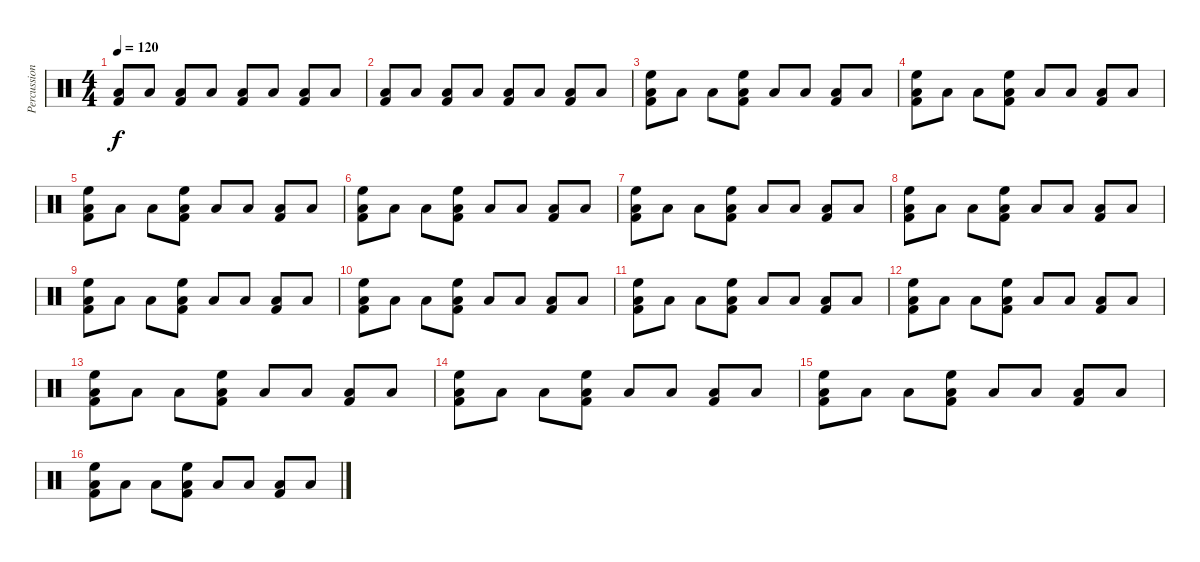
\track ("Percussion" "Percussion") {instrument percussion}
\staff {score}
\articulation defaults
\ts (4 4)
\tempo 120
\clef neutral
\ks c
("Low Floor Tom (hit)" "Kick (hit) 2").8{dy f} "Low Floor Tom (hit)".8 ("Low Floor Tom (hit)" "Kick (hit) 2").8 "Low Floor Tom (hit)".8 ("Low Floor Tom (hit)" "Kick (hit) 2").8 "Low Floor Tom (hit)".8 ("Low Floor Tom (hit)" "Kick (hit) 2").8 "Low Floor Tom (hit)".8 |
("Low Floor Tom (hit)" "Kick (hit) 2").8 "Low Floor Tom (hit)".8 ("Low Floor Tom (hit)" "Kick (hit) 2").8 "Low Floor Tom (hit)".8 ("Low Floor Tom (hit)" "Kick (hit) 2").8 "Low Floor Tom (hit)".8 ("Low Floor Tom (hit)" "Kick (hit) 2").8 "Low Floor Tom (hit)".8 |
("Low Floor Tom (hit)" "High Floor Tom (hit)" "Kick (hit) 2").8 "Low Floor Tom (hit)".8 "Low Floor Tom (hit)".8 ("Low Floor Tom (hit)" "High Floor Tom (hit)" "Kick (hit) 2").8 "Low Floor Tom (hit)".8 "Low Floor Tom (hit)".8 ("Low Floor Tom (hit)" "Kick (hit) 2").8 "Low Floor Tom (hit)".8 |
("Low Floor Tom (hit)" "High Floor Tom (hit)" "Kick (hit) 2").8 "Low Floor Tom (hit)".8 "Low Floor Tom (hit)".8 ("Low Floor Tom (hit)" "High Floor Tom (hit)" "Kick (hit) 2").8 "Low Floor Tom (hit)".8 "Low Floor Tom (hit)".8 ("Low Floor Tom (hit)" "Kick (hit) 2").8 "Low Floor Tom (hit)".8 |
("Low Floor Tom (hit)" "High Floor Tom (hit)" "Kick (hit) 2").8 "Low Floor Tom (hit)".8 "Low Floor Tom (hit)".8 ("Low Floor Tom (hit)" "High Floor Tom (hit)" "Kick (hit) 2").8 "Low Floor Tom (hit)".8 "Low Floor Tom (hit)".8 ("Low Floor Tom (hit)" "Kick (hit) 2").8 "Low Floor Tom (hit)".8 |
("Low Floor Tom (hit)" "High Floor Tom (hit)" "Kick (hit) 2").8 "Low Floor Tom (hit)".8 "Low Floor Tom (hit)".8 ("Low Floor Tom (hit)" "High Floor Tom (hit)" "Kick (hit) 2").8 "Low Floor Tom (hit)".8 "Low Floor Tom (hit)".8 ("Low Floor Tom (hit)" "Kick (hit) 2").8 "Low Floor Tom (hit)".8 |
("Low Floor Tom (hit)" "High Floor Tom (hit)" "Kick (hit) 2").8 "Low Floor Tom (hit)".8 "Low Floor Tom (hit)".8 ("Low Floor Tom (hit)" "High Floor Tom (hit)" "Kick (hit) 2").8 "Low Floor Tom (hit)".8 "Low Floor Tom (hit)".8 ("Low Floor Tom (hit)" "Kick (hit) 2").8 "Low Floor Tom (hit)".8 |
("Low Floor Tom (hit)" "High Floor Tom (hit)" "Kick (hit) 2").8 "Low Floor Tom (hit)".8 "Low Floor Tom (hit)".8 ("Low Floor Tom (hit)" "High Floor Tom (hit)" "Kick (hit) 2").8 "Low Floor Tom (hit)".8 "Low Floor Tom (hit)".8 ("Low Floor Tom (hit)" "Kick (hit) 2").8 "Low Floor Tom (hit)".8 |
("Low Floor Tom (hit)" "High Floor Tom (hit)" "Kick (hit) 2").8 "Low Floor Tom (hit)".8 "Low Floor Tom (hit)".8 ("Low Floor Tom (hit)" "High Floor Tom (hit)" "Kick (hit) 2").8 "Low Floor Tom (hit)".8 "Low Floor Tom (hit)".8 ("Low Floor Tom (hit)" "Kick (hit) 2").8 "Low Floor Tom (hit)".8 |
("Low Floor Tom (hit)" "High Floor Tom (hit)" "Kick (hit) 2").8 "Low Floor Tom (hit)".8 "Low Floor Tom (hit)".8 ("Low Floor Tom (hit)" "High Floor Tom (hit)" "Kick (hit) 2").8 "Low Floor Tom (hit)".8 "Low Floor Tom (hit)".8 ("Low Floor Tom (hit)" "Kick (hit) 2").8 "Low Floor Tom (hit)".8 |
("Low Floor Tom (hit)" "High Floor Tom (hit)" "Kick (hit) 2").8 "Low Floor Tom (hit)".8 "Low Floor Tom (hit)".8 ("Low Floor Tom (hit)" "High Floor Tom (hit)" "Kick (hit) 2").8 "Low Floor Tom (hit)".8 "Low Floor Tom (hit)".8 ("Low Floor Tom (hit)" "Kick (hit) 2").8 "Low Floor Tom (hit)".8 |
("Low Floor Tom (hit)" "High Floor Tom (hit)" "Kick (hit) 2").8 "Low Floor Tom (hit)".8 "Low Floor Tom (hit)".8 ("Low Floor Tom (hit)" "High Floor Tom (hit)" "Kick (hit) 2").8 "Low Floor Tom (hit)".8 "Low Floor Tom (hit)".8 ("Low Floor Tom (hit)" "Kick (hit) 2").8 "Low Floor Tom (hit)".8 |
("Low Floor Tom (hit)" "High Floor Tom (hit)" "Kick (hit) 2").8 "Low Floor Tom (hit)".8 "Low Floor Tom (hit)".8 ("Low Floor Tom (hit)" "High Floor Tom (hit)" "Kick (hit) 2").8 "Low Floor Tom (hit)".8 "Low Floor Tom (hit)".8 ("Low Floor Tom (hit)" "Kick (hit) 2").8 "Low Floor Tom (hit)".8 |
("Low Floor Tom (hit)" "High Floor Tom (hit)" "Kick (hit) 2").8 "Low Floor Tom (hit)".8 "Low Floor Tom (hit)".8 ("Low Floor Tom (hit)" "High Floor Tom (hit)" "Kick (hit) 2").8 "Low Floor Tom (hit)".8 "Low Floor Tom (hit)".8 ("Low Floor Tom (hit)" "Kick (hit) 2").8 "Low Floor Tom (hit)".8 |
("Low Floor Tom (hit)" "High Floor Tom (hit)" "Kick (hit) 2").8 "Low Floor Tom (hit)".8 "Low Floor Tom (hit)".8 ("Low Floor Tom (hit)" "High Floor Tom (hit)" "Kick (hit) 2").8 "Low Floor Tom (hit)".8 "Low Floor Tom (hit)".8 ("Low Floor Tom (hit)" "Kick (hit) 2").8 "Low Floor Tom (hit)".8 |
("Low Floor Tom (hit)" "High Floor Tom (hit)" "Kick (hit) 2").8 "Low Floor Tom (hit)".8 "Low Floor Tom (hit)".8 ("Low Floor Tom (hit)" "High Floor Tom (hit)" "Kick (hit) 2").8 "Low Floor Tom (hit)".8 "Low Floor Tom (hit)".8 ("Low Floor Tom (hit)" "Kick (hit) 2").8 "Low Floor Tom (hit)".8
